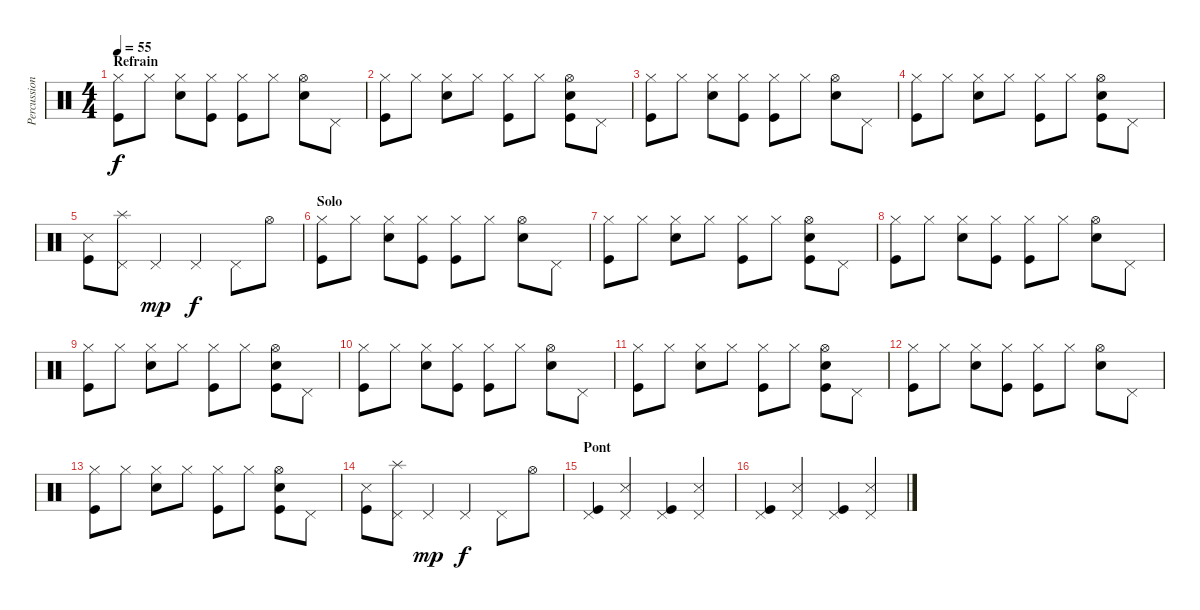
\track ("Percussions" "Percussion") {instrument percussion}
\staff {score}
\articulation defaults
\ts (4 4)
\section ("" "Refrain")
\tempo 55
\clef neutral
\ks c
("Hi-Hat (closed)" "Kick (hit)").8{dy f} "Hi-Hat (closed)".8 ("Hi-Hat (closed)" "Snare (hit) 2").8 ("Hi-Hat (closed)" "Kick (hit)").8 ("Hi-Hat (closed)" "Kick (hit)").8 "Hi-Hat (closed)".8 ("Hi-Hat (open)" "Snare (hit) 2").8 "Pedal Hi-Hat (hit)".8 |
("Hi-Hat (closed)" "Kick (hit)").8 "Hi-Hat (closed)".8 ("Hi-Hat (closed)" "Snare (hit) 2").8 "Hi-Hat (closed)".8 ("Hi-Hat (closed)" "Kick (hit)").8 "Hi-Hat (closed)".8 ("Hi-Hat (open)" "Snare (hit) 2" "Kick (hit)").8 "Pedal Hi-Hat (hit)".8 |
("Hi-Hat (closed)" "Kick (hit)").8 "Hi-Hat (closed)".8 ("Hi-Hat (closed)" "Snare (hit) 2").8 ("Hi-Hat (closed)" "Kick (hit)").8 ("Hi-Hat (closed)" "Kick (hit)").8 "Hi-Hat (closed)".8 ("Hi-Hat (open)" "Snare (hit) 2").8 "Pedal Hi-Hat (hit)".8 |
("Hi-Hat (closed)" "Kick (hit)").8 "Hi-Hat (closed)".8 ("Hi-Hat (closed)" "Snare (hit) 2").8 "Hi-Hat (closed)".8 ("Hi-Hat (closed)" "Kick (hit)").8 "Hi-Hat (closed)".8 ("Hi-Hat (open)" "Snare (hit) 2" "Kick (hit)").8 "Pedal Hi-Hat (hit)".8 |
("Snare (side stick) 3" "Kick (hit)").8 ("Pedal Hi-Hat (hit)" "Splash (hit)").8 "Pedal Hi-Hat (hit)".4{dy mp} "Pedal Hi-Hat (hit)".4{dy f} "Pedal Hi-Hat (hit)".8 "Hi-Hat (open)".8 |
\section ("" "Solo")
("Hi-Hat (closed)" "Kick (hit)").8 "Hi-Hat (closed)".8 ("Hi-Hat (closed)" "Snare (hit) 2").8 ("Hi-Hat (closed)" "Kick (hit)").8 ("Hi-Hat (closed)" "Kick (hit)").8 "Hi-Hat (closed)".8 ("Hi-Hat (open)" "Snare (hit) 2").8 "Pedal Hi-Hat (hit)".8 |
("Hi-Hat (closed)" "Kick (hit)").8 "Hi-Hat (closed)".8 ("Hi-Hat (closed)" "Snare (hit) 2").8 "Hi-Hat (closed)".8 ("Hi-Hat (closed)" "Kick (hit)").8 "Hi-Hat (closed)".8 ("Hi-Hat (open)" "Snare (hit) 2" "Kick (hit)").8 "Pedal Hi-Hat (hit)".8 |
("Hi-Hat (closed)" "Kick (hit)").8 "Hi-Hat (closed)".8 ("Hi-Hat (closed)" "Snare (hit) 2").8 ("Hi-Hat (closed)" "Kick (hit)").8 ("Hi-Hat (closed)" "Kick (hit)").8 "Hi-Hat (closed)".8 ("Hi-Hat (open)" "Snare (hit) 2").8 "Pedal Hi-Hat (hit)".8 |
("Hi-Hat (closed)" "Kick (hit)").8 "Hi-Hat (closed)".8 ("Hi-Hat (closed)" "Snare (hit) 2").8 "Hi-Hat (closed)".8 ("Hi-Hat (closed)" "Kick (hit)").8 "Hi-Hat (closed)".8 ("Hi-Hat (open)" "Snare (hit) 2" "Kick (hit)").8 "Pedal Hi-Hat (hit)".8 |
("Hi-Hat (closed)" "Kick (hit)").8 "Hi-Hat (closed)".8 ("Hi-Hat (closed)" "Snare (hit) 2").8 ("Hi-Hat (closed)" "Kick (hit)").8 ("Hi-Hat (closed)" "Kick (hit)").8 "Hi-Hat (closed)".8 ("Hi-Hat (open)" "Snare (hit) 2").8 "Pedal Hi-Hat (hit)".8 |
("Hi-Hat (closed)" "Kick (hit)").8 "Hi-Hat (closed)".8 ("Hi-Hat (closed)" "Snare (hit) 2").8 "Hi-Hat (closed)".8 ("Hi-Hat (closed)" "Kick (hit)").8 "Hi-Hat (closed)".8 ("Hi-Hat (open)" "Snare (hit) 2" "Kick (hit)").8 "Pedal Hi-Hat (hit)".8 |
("Hi-Hat (closed)" "Kick (hit)").8 "Hi-Hat (closed)".8 ("Hi-Hat (closed)" "Snare (hit) 2").8 ("Hi-Hat (closed)" "Kick (hit)").8 ("Hi-Hat (closed)" "Kick (hit)").8 "Hi-Hat (closed)".8 ("Hi-Hat (open)" "Snare (hit) 2").8 "Pedal Hi-Hat (hit)".8 |
("Hi-Hat (closed)" "Kick (hit)").8 "Hi-Hat (closed)".8 ("Hi-Hat (closed)" "Snare (hit) 2").8 "Hi-Hat (closed)".8 ("Hi-Hat (closed)" "Kick (hit)").8 "Hi-Hat (closed)".8 ("Hi-Hat (open)" "Snare (hit) 2" "Kick (hit)").8 "Pedal Hi-Hat (hit)".8 |
("Snare (side stick) 3" "Kick (hit)").8 ("Pedal Hi-Hat (hit)" "Splash (hit)").8 "Pedal Hi-Hat (hit)".4{dy mp} "Pedal Hi-Hat (hit)".4{dy f} "Pedal Hi-Hat (hit)".8 "Hi-Hat (open)".8 |
\section ("" "Pont")
("Pedal Hi-Hat (hit)" "Kick (hit)").4 ("Pedal Hi-Hat (hit)" "Snare (side stick) 3").4 ("Pedal Hi-Hat (hit)" "Kick (hit)").4 ("Pedal Hi-Hat (hit)" "Snare (side stick) 3").4 |
("Pedal Hi-Hat (hit)" "Kick (hit)").4 ("Pedal Hi-Hat (hit)" "Snare (side stick) 3").4 ("Pedal Hi-Hat (hit)" "Kick (hit)").4 ("Pedal Hi-Hat (hit)" "Snare (side stick) 3").4
